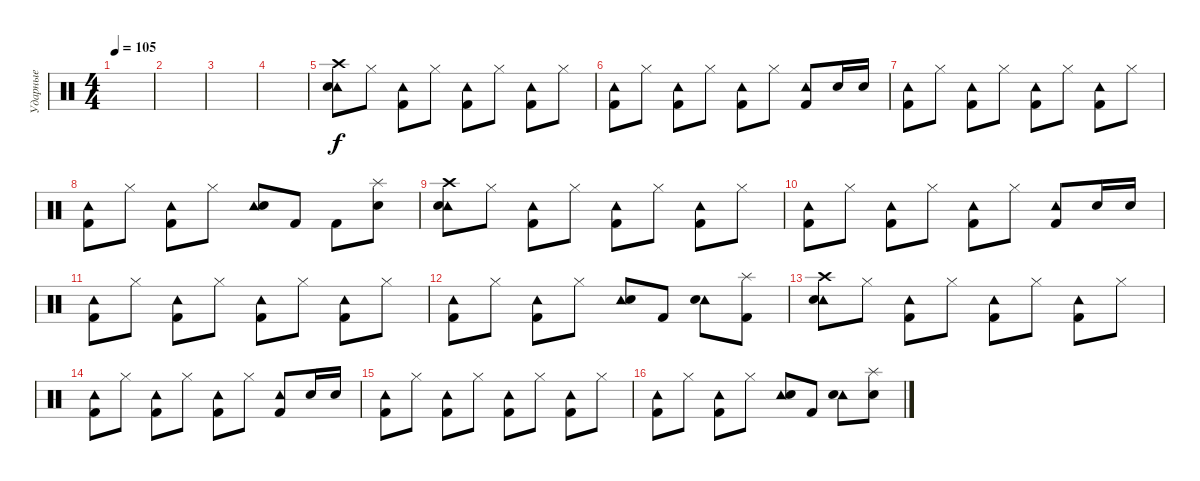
\track ("Ударные" "Ударные") {instrument percussion}
\staff {score}
\articulation defaults
\ts (4 4)
\tempo 105
\clef neutral
\ks c
|
|
|
|
("Tambourine (hit)" "Crash high (hit)" "Snare (hit) 2").8 "Hi-Hat (closed)".8 ("Tambourine (hit)" "Kick (hit) 2").8 "Hi-Hat (closed)".8 ("Tambourine (hit)" "Kick (hit) 2").8 "Hi-Hat (closed)".8 ("Tambourine (hit)" "Kick (hit) 2").8 "Hi-Hat (closed)".8 |
("Tambourine (hit)" "Kick (hit) 2").8 "Hi-Hat (closed)".8 ("Tambourine (hit)" "Kick (hit) 2").8 "Hi-Hat (closed)".8 ("Tambourine (hit)" "Kick (hit) 2").8 "Hi-Hat (closed)".8 ("Tambourine (hit)" "Kick (hit) 2").8 "Electric Snare (hit)".16 "Electric Snare (hit)".16 |
("Tambourine (hit)" "Kick (hit) 2").8 "Hi-Hat (closed)".8 ("Tambourine (hit)" "Kick (hit) 2").8 "Hi-Hat (closed)".8 ("Tambourine (hit)" "Kick (hit) 2").8 "Hi-Hat (closed)".8 ("Tambourine (hit)" "Kick (hit) 2").8 "Hi-Hat (closed)".8 |
("Tambourine (hit)" "Kick (hit) 2").8 "Hi-Hat (closed)".8 ("Tambourine (hit)" "Kick (hit) 2").8 "Hi-Hat (closed)".8 ("Tambourine (hit)" "Electric Snare (hit)").8 "Kick (hit) 2".8 "Kick (hit) 2".8 ("Splash (hit)" "Electric Snare (hit)").8 |
("Tambourine (hit)" "Crash high (hit)" "Snare (hit) 2").8 "Hi-Hat (closed)".8 ("Tambourine (hit)" "Kick (hit) 2").8 "Hi-Hat (closed)".8 ("Tambourine (hit)" "Kick (hit) 2").8 "Hi-Hat (closed)".8 ("Tambourine (hit)" "Kick (hit) 2").8 "Hi-Hat (closed)".8 |
("Tambourine (hit)" "Kick (hit) 2").8 "Hi-Hat (closed)".8 ("Tambourine (hit)" "Kick (hit) 2").8 "Hi-Hat (closed)".8 ("Tambourine (hit)" "Kick (hit) 2").8 "Hi-Hat (closed)".8 ("Tambourine (hit)" "Kick (hit) 2").8 "Electric Snare (hit)".16 "Electric Snare (hit)".16 |
("Tambourine (hit)" "Kick (hit) 2").8 "Hi-Hat (closed)".8 ("Tambourine (hit)" "Kick (hit) 2").8 "Hi-Hat (closed)".8 ("Tambourine (hit)" "Kick (hit) 2").8 "Hi-Hat (closed)".8 ("Tambourine (hit)" "Kick (hit) 2").8 "Hi-Hat (closed)".8 |
("Tambourine (hit)" "Kick (hit) 2").8 "Hi-Hat (closed)".8 ("Tambourine (hit)" "Kick (hit) 2").8 "Hi-Hat (closed)".8 ("Tambourine (hit)" "Electric Snare (hit)").8 "Kick (hit) 2".8 ("Tambourine (hit)" "Electric Snare (hit)").8 ("Splash (hit)" "Kick (hit) 2").8 |
("Tambourine (hit)" "Crash high (hit)" "Snare (hit) 2").8 "Hi-Hat (closed)".8 ("Tambourine (hit)" "Kick (hit) 2").8 "Hi-Hat (closed)".8 ("Tambourine (hit)" "Kick (hit) 2").8 "Hi-Hat (closed)".8 ("Tambourine (hit)" "Kick (hit) 2").8 "Hi-Hat (closed)".8 |
("Tambourine (hit)" "Kick (hit) 2").8 "Hi-Hat (closed)".8 ("Tambourine (hit)" "Kick (hit) 2").8 "Hi-Hat (closed)".8 ("Tambourine (hit)" "Kick (hit) 2").8 "Hi-Hat (closed)".8 ("Tambourine (hit)" "Kick (hit) 2").8 "Electric Snare (hit)".16 "Electric Snare (hit)".16 |
("Tambourine (hit)" "Kick (hit) 2").8 "Hi-Hat (closed)".8 ("Tambourine (hit)" "Kick (hit) 2").8 "Hi-Hat (closed)".8 ("Tambourine (hit)" "Kick (hit) 2").8 "Hi-Hat (closed)".8 ("Tambourine (hit)" "Kick (hit) 2").8 "Hi-Hat (closed)".8 |
("Tambourine (hit)" "Kick (hit) 2").8 "Hi-Hat (closed)".8 ("Tambourine (hit)" "Kick (hit) 2").8 "Hi-Hat (closed)".8 ("Tambourine (hit)" "Electric Snare (hit)").8 "Kick (hit) 2".8 ("Tambourine (hit)" "Electric Snare (hit)").8 ("Splash (hit)" "Electric Snare (hit)").8
